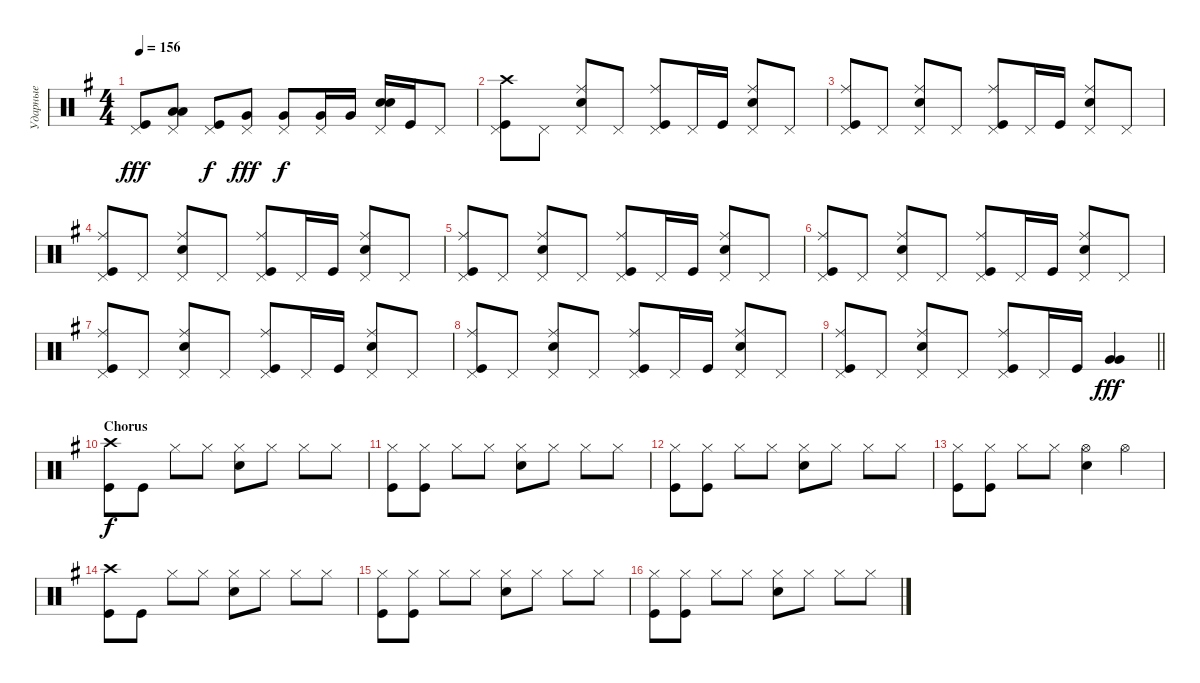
\track ("Ударные" "Ударные") {instrument percussion}
\staff {score}
\articulation defaults
\ts (4 4)
\tempo 156
\clef neutral
\ks eminor
("Kick (hit)" "Pedal Hi-Hat (hit)").8{dy fff} ("Low Tom (hit)" "Low Tom (hit)" "Pedal Hi-Hat (hit)").8{bd 480} ("Kick (hit)" "Pedal Hi-Hat (hit)").8{dy f} ("Very Low Tom (hit)" "Pedal Hi-Hat (hit)").8{dy fff} ("Very Low Tom (hit)" "Pedal Hi-Hat (hit)").8{dy f} ("Very Low Tom (hit)" "Pedal Hi-Hat (hit)").16 "Very Low Tom (hit)".16 ("Snare (hit) 2" "Snare (hit) 2" "Pedal Hi-Hat (hit)").16{bd 240} "Kick (hit)".16 "Pedal Hi-Hat (hit)".8 |
("Kick (hit)" "Crash high (hit)" "Pedal Hi-Hat (hit)").8 "Pedal Hi-Hat (hit)".8 ("Snare (hit) 2" "Ride (middle)" "Pedal Hi-Hat (hit)").8 "Pedal Hi-Hat (hit)".8 ("Kick (hit)" "Ride (middle)" "Pedal Hi-Hat (hit)").8 "Pedal Hi-Hat (hit)".16 "Kick (hit)".16 ("Snare (hit) 2" "Ride (middle)" "Pedal Hi-Hat (hit)").8 "Pedal Hi-Hat (hit)".8 |
("Kick (hit)" "Ride (middle)" "Pedal Hi-Hat (hit)").8 "Pedal Hi-Hat (hit)".8 ("Snare (hit) 2" "Ride (middle)" "Pedal Hi-Hat (hit)").8 "Pedal Hi-Hat (hit)".8 ("Kick (hit)" "Ride (middle)" "Pedal Hi-Hat (hit)").8 "Pedal Hi-Hat (hit)".16 "Kick (hit)".16 ("Snare (hit) 2" "Ride (middle)" "Pedal Hi-Hat (hit)").8 "Pedal Hi-Hat (hit)".8 |
("Kick (hit)" "Ride (middle)" "Pedal Hi-Hat (hit)").8 "Pedal Hi-Hat (hit)".8 ("Snare (hit) 2" "Ride (middle)" "Pedal Hi-Hat (hit)").8 "Pedal Hi-Hat (hit)".8 ("Kick (hit)" "Ride (middle)" "Pedal Hi-Hat (hit)").8 "Pedal Hi-Hat (hit)".16 "Kick (hit)".16 ("Snare (hit) 2" "Ride (middle)" "Pedal Hi-Hat (hit)").8 "Pedal Hi-Hat (hit)".8 |
("Kick (hit)" "Ride (middle)" "Pedal Hi-Hat (hit)").8 "Pedal Hi-Hat (hit)".8 ("Snare (hit) 2" "Ride (middle)" "Pedal Hi-Hat (hit)").8 "Pedal Hi-Hat (hit)".8 ("Kick (hit)" "Ride (middle)" "Pedal Hi-Hat (hit)").8 "Pedal Hi-Hat (hit)".16 "Kick (hit)".16 ("Snare (hit) 2" "Ride (middle)" "Pedal Hi-Hat (hit)").8 "Pedal Hi-Hat (hit)".8 |
("Kick (hit)" "Ride (middle)" "Pedal Hi-Hat (hit)").8 "Pedal Hi-Hat (hit)".8 ("Snare (hit) 2" "Ride (middle)" "Pedal Hi-Hat (hit)").8 "Pedal Hi-Hat (hit)".8 ("Kick (hit)" "Ride (middle)" "Pedal Hi-Hat (hit)").8 "Pedal Hi-Hat (hit)".16 "Kick (hit)".16 ("Snare (hit) 2" "Ride (middle)" "Pedal Hi-Hat (hit)").8 "Pedal Hi-Hat (hit)".8 |
("Kick (hit)" "Ride (middle)" "Pedal Hi-Hat (hit)").8 "Pedal Hi-Hat (hit)".8 ("Snare (hit) 2" "Ride (middle)" "Pedal Hi-Hat (hit)").8 "Pedal Hi-Hat (hit)".8 ("Kick (hit)" "Ride (middle)" "Pedal Hi-Hat (hit)").8 "Pedal Hi-Hat (hit)".16 "Kick (hit)".16 ("Snare (hit) 2" "Ride (middle)" "Pedal Hi-Hat (hit)").8 "Pedal Hi-Hat (hit)".8 |
("Kick (hit)" "Ride (middle)" "Pedal Hi-Hat (hit)").8 "Pedal Hi-Hat (hit)".8 ("Snare (hit) 2" "Ride (middle)" "Pedal Hi-Hat (hit)").8 "Pedal Hi-Hat (hit)".8 ("Kick (hit)" "Ride (middle)" "Pedal Hi-Hat (hit)").8 "Pedal Hi-Hat (hit)".16 "Kick (hit)".16 ("Snare (hit) 2" "Ride (middle)" "Pedal Hi-Hat (hit)").8 "Pedal Hi-Hat (hit)".8 |
\barLineRight lightlight
("Kick (hit)" "Pedal Hi-Hat (hit)" "Ride (middle)").8 "Pedal Hi-Hat (hit)".8 ("Snare (hit) 2" "Pedal Hi-Hat (hit)" "Ride (middle)").8 "Pedal Hi-Hat (hit)".8 ("Kick (hit)" "Pedal Hi-Hat (hit)" "Ride (middle)").8 "Pedal Hi-Hat (hit)".16 "Kick (hit)".16 ("Very Low Tom (hit)" "Very Low Tom (hit)").4{bd 240 dy fff} |
\section ("" "Chorus")
("Kick (hit)" "Crash high (hit)").8{dy f} "Kick (hit)".8 "Hi-Hat (closed)".8 "Hi-Hat (closed)".8 ("Hi-Hat (closed)" "Snare (hit) 2").8 "Hi-Hat (closed)".8 "Hi-Hat (closed)".8 "Hi-Hat (closed)".8 |
("Hi-Hat (closed)" "Kick (hit)").8 ("Hi-Hat (closed)" "Kick (hit)").8 "Hi-Hat (closed)".8 "Hi-Hat (closed)".8 ("Hi-Hat (closed)" "Snare (hit) 2").8 "Hi-Hat (closed)".8 "Hi-Hat (closed)".8 "Hi-Hat (closed)".8 |
("Hi-Hat (closed)" "Kick (hit)").8 ("Hi-Hat (closed)" "Kick (hit)").8 "Hi-Hat (closed)".8 "Hi-Hat (closed)".8 ("Hi-Hat (closed)" "Snare (hit) 2").8 "Hi-Hat (closed)".8 "Hi-Hat (closed)".8 "Hi-Hat (closed)".8 |
("Hi-Hat (closed)" "Kick (hit)").8 ("Hi-Hat (closed)" "Kick (hit)").8 "Hi-Hat (closed)".8 "Hi-Hat (closed)".8 ("Hi-Hat (open)" "Snare (hit) 2").4 "Hi-Hat (open)".4 |
("Kick (hit)" "Crash high (hit)").8 "Kick (hit)".8 "Hi-Hat (closed)".8 "Hi-Hat (closed)".8 ("Hi-Hat (closed)" "Snare (hit) 2").8 "Hi-Hat (closed)".8 "Hi-Hat (closed)".8 "Hi-Hat (closed)".8 |
("Hi-Hat (closed)" "Kick (hit)").8 ("Hi-Hat (closed)" "Kick (hit)").8 "Hi-Hat (closed)".8 "Hi-Hat (closed)".8 ("Hi-Hat (closed)" "Snare (hit) 2").8 "Hi-Hat (closed)".8 "Hi-Hat (closed)".8 "Hi-Hat (closed)".8 |
("Hi-Hat (closed)" "Kick (hit)").8 ("Hi-Hat (closed)" "Kick (hit)").8 "Hi-Hat (closed)".8 "Hi-Hat (closed)".8 ("Hi-Hat (closed)" "Snare (hit) 2").8 "Hi-Hat (closed)".8 "Hi-Hat (closed)".8 "Hi-Hat (closed)".8
